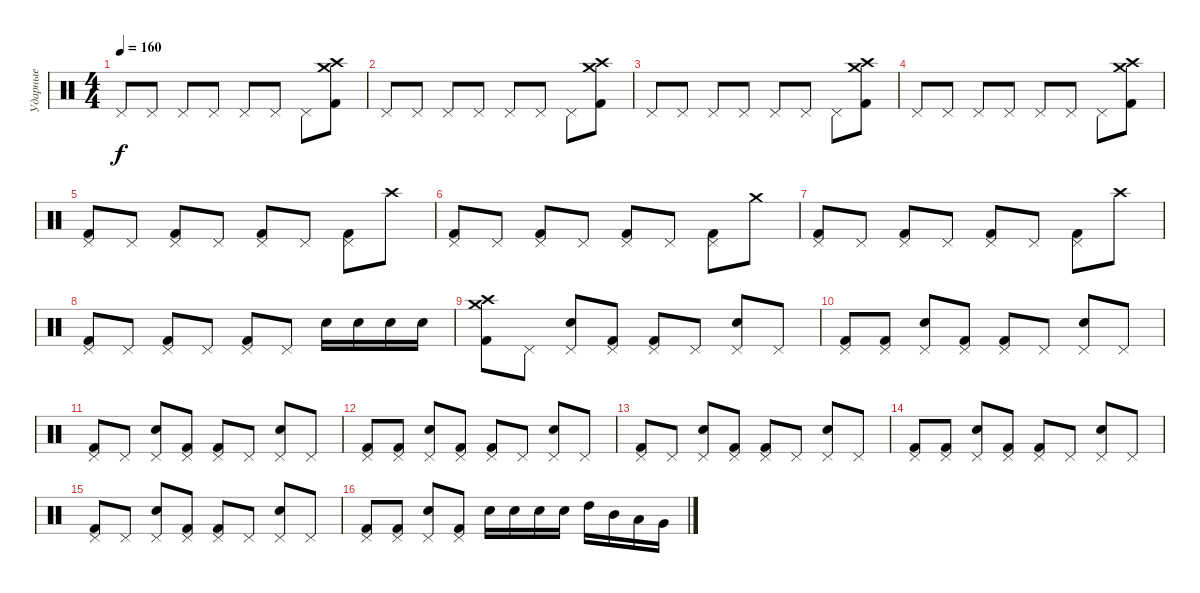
\track ("Ударные" "Ударные") {instrument percussion}
\staff {score}
\articulation defaults
\ts (4 4)
\tempo 160
\clef neutral
\ks c "Pedal Hi-Hat (hit)".8{dy f} "Pedal Hi-Hat (hit)".8 "Pedal Hi-Hat (hit)".8 "Pedal Hi-Hat (hit)".8 "Pedal Hi-Hat (hit)".8 "Pedal Hi-Hat (hit)".8 "Pedal Hi-Hat (hit)".8
("Crash medium (hit)" "Crash high (hit)" "Kick (hit) 2").8 |
"Pedal Hi-Hat (hit)".8 "Pedal Hi-Hat (hit)".8 "Pedal Hi-Hat (hit)".8 "Pedal Hi-Hat (hit)".8 "Pedal Hi-Hat (hit)".8 "Pedal Hi-Hat (hit)".8 "Pedal Hi-Hat (hit)".8 ("Crash medium (hit)" "Crash high (hit)" "Kick (hit) 2").8 |
"Pedal Hi-Hat (hit)".8 "Pedal Hi-Hat (hit)".8 "Pedal Hi-Hat (hit)".8 "Pedal Hi-Hat (hit)".8 "Pedal Hi-Hat (hit)".8 "Pedal Hi-Hat (hit)".8 "Pedal Hi-Hat (hit)".8 ("Crash medium (hit)" "Crash high (hit)" "Kick (hit) 2").8 |
"Pedal Hi-Hat (hit)".8 "Pedal Hi-Hat (hit)".8 "Pedal Hi-Hat (hit)".8 "Pedal Hi-Hat (hit)".8 "Pedal Hi-Hat (hit)".8 "Pedal Hi-Hat (hit)".8 "Pedal Hi-Hat (hit)".8 ("Crash medium (hit)" "Crash high (hit)" "Kick (hit) 2").8 |
("Pedal Hi-Hat (hit)" "Kick (hit) 2").8 "Pedal Hi-Hat (hit)".8 ("Pedal Hi-Hat (hit)" "Kick (hit) 2").8 "Pedal Hi-Hat (hit)".8 ("Pedal Hi-Hat (hit)" "Kick (hit) 2").8 "Pedal Hi-Hat (hit)".8 ("Pedal Hi-Hat (hit)" "Kick (hit) 2").8 "Crash high (hit)".8 |
("Pedal Hi-Hat (hit)" "Kick (hit) 2").8 "Pedal Hi-Hat (hit)".8 ("Pedal Hi-Hat (hit)" "Kick (hit) 2").8 "Pedal Hi-Hat (hit)".8 ("Pedal Hi-Hat (hit)" "Kick (hit) 2").8 "Pedal Hi-Hat (hit)".8 ("Pedal Hi-Hat (hit)" "Kick (hit) 2").8 "Crash medium (hit)".8 |
("Pedal Hi-Hat (hit)" "Kick (hit) 2").8 "Pedal Hi-Hat (hit)".8 ("Pedal Hi-Hat (hit)" "Kick (hit) 2").8 "Pedal Hi-Hat (hit)".8 ("Pedal Hi-Hat (hit)" "Kick (hit) 2").8 "Pedal Hi-Hat (hit)".8 ("Pedal Hi-Hat (hit)" "Kick (hit) 2").8 "Crash high (hit)".8 |
("Pedal Hi-Hat (hit)" "Kick (hit) 2").8 "Pedal Hi-Hat (hit)".8 ("Pedal Hi-Hat (hit)" "Kick (hit) 2").8 "Pedal Hi-Hat (hit)".8 ("Pedal Hi-Hat (hit)" "Kick (hit) 2").8 "Pedal Hi-Hat (hit)".8 "Electric Snare (hit)".16 "Electric Snare (hit)".16 "Electric Snare (hit)".16 "Electric Snare (hit)".16 |
("Crash medium (hit)" "Crash high (hit)" "Kick (hit) 2").8 "Pedal Hi-Hat (hit)".8 ("Pedal Hi-Hat (hit)" "Electric Snare (hit)").8 ("Pedal Hi-Hat (hit)" "Kick (hit) 2").8 ("Pedal Hi-Hat (hit)" "Kick (hit) 2").8 "Pedal Hi-Hat (hit)".8 ("Pedal Hi-Hat (hit)" "Electric Snare (hit)").8 "Pedal Hi-Hat (hit)".8 |
("Pedal Hi-Hat (hit)" "Kick (hit) 2").8 ("Pedal Hi-Hat (hit)" "Kick (hit) 2").8 ("Pedal Hi-Hat (hit)" "Electric Snare (hit)").8 ("Pedal Hi-Hat (hit)" "Kick (hit) 2").8 ("Pedal Hi-Hat (hit)" "Kick (hit) 2").8 "Pedal Hi-Hat (hit)".8 ("Pedal Hi-Hat (hit)" "Electric Snare (hit)").8 "Pedal Hi-Hat (hit)".8 |
("Pedal Hi-Hat (hit)" "Kick (hit) 2").8 "Pedal Hi-Hat (hit)".8 ("Pedal Hi-Hat (hit)" "Electric Snare (hit)").8 ("Pedal Hi-Hat (hit)" "Kick (hit) 2").8 ("Pedal Hi-Hat (hit)" "Kick (hit) 2").8 "Pedal Hi-Hat (hit)".8 ("Pedal Hi-Hat (hit)" "Electric Snare (hit)").8 "Pedal Hi-Hat (hit)".8 |
("Pedal Hi-Hat (hit)" "Kick (hit) 2").8 ("Pedal Hi-Hat (hit)" "Kick (hit) 2").8 ("Pedal Hi-Hat (hit)" "Electric Snare (hit)").8 ("Pedal Hi-Hat (hit)" "Kick (hit) 2").8 ("Pedal Hi-Hat (hit)" "Kick (hit) 2").8 "Pedal Hi-Hat (hit)".8 ("Pedal Hi-Hat (hit)" "Electric Snare (hit)").8 "Pedal Hi-Hat (hit)".8 |
("Pedal Hi-Hat (hit)" "Kick (hit) 2").8 "Pedal Hi-Hat (hit)".8 ("Pedal Hi-Hat (hit)" "Electric Snare (hit)").8 ("Pedal Hi-Hat (hit)" "Kick (hit) 2").8 ("Pedal Hi-Hat (hit)" "Kick (hit) 2").8 "Pedal Hi-Hat (hit)".8 ("Pedal Hi-Hat (hit)" "Electric Snare (hit)").8 "Pedal Hi-Hat (hit)".8 |
("Pedal Hi-Hat (hit)" "Kick (hit) 2").8 ("Pedal Hi-Hat (hit)" "Kick (hit) 2").8 ("Pedal Hi-Hat (hit)" "Electric Snare (hit)").8 ("Pedal Hi-Hat (hit)" "Kick (hit) 2").8 ("Pedal Hi-Hat (hit)" "Kick (hit) 2").8 "Pedal Hi-Hat (hit)".8 ("Pedal Hi-Hat (hit)" "Electric Snare (hit)").8 "Pedal Hi-Hat (hit)".8 |
("Pedal Hi-Hat (hit)" "Kick (hit) 2").8 "Pedal Hi-Hat (hit)".8 ("Pedal Hi-Hat (hit)" "Electric Snare (hit)").8 ("Pedal Hi-Hat (hit)" "Kick (hit) 2").8 ("Pedal Hi-Hat (hit)" "Kick (hit) 2").8 "Pedal Hi-Hat (hit)".8 ("Pedal Hi-Hat (hit)" "Electric Snare (hit)").8 "Pedal Hi-Hat (hit)".8 |
("Pedal Hi-Hat (hit)" "Kick (hit) 2").8 ("Pedal Hi-Hat (hit)" "Kick (hit) 2").8 ("Pedal Hi-Hat (hit)" "Electric Snare (hit)").8 ("Pedal Hi-Hat (hit)" "Kick (hit) 2").8 "Electric Snare (hit)".16 "Electric Snare (hit)".16 "Electric Snare (hit)".16 "Electric Snare (hit)".16 "High Tom (hit)".16 "Mid Tom (hit)".16 "Low Tom (hit)".16 "Very Low Tom (hit)".16
